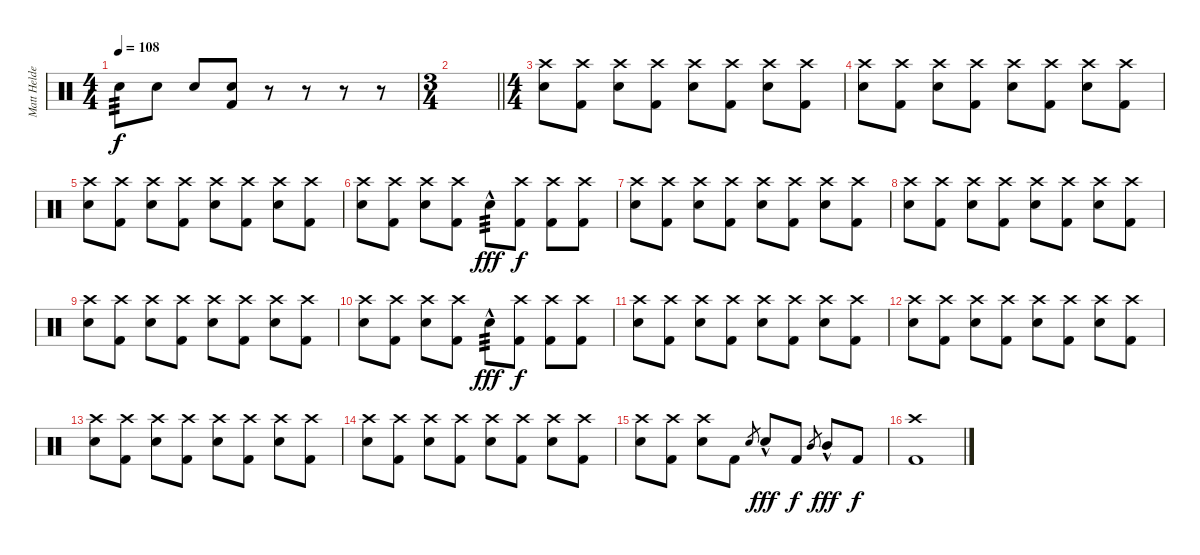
\track ("Matt Helder" "Matt Helde") {instrument percussion}
\staff {score}
\articulation defaults
\ts (4 4)
\tempo 108
\clef neutral
\ks c "Electric Snare (hit)".8{tp 3 dy f} "Electric Snare (hit)".8 "Electric Snare (hit)".8
("Electric Snare (hit)" "Kick (hit) 2").8 r.8 r.8 r.8 r.8 |
\ts (3 4)
\barLineRight lightlight
|
\ts (4 4)
("Crash high (hit)" "Electric Snare (hit)").8 ("Crash high (hit)" "Kick (hit) 2").8 ("Crash high (hit)" "Electric Snare (hit)").8 ("Crash high (hit)" "Kick (hit) 2").8 ("Crash high (hit)" "Electric Snare (hit)").8 ("Crash high (hit)" "Kick (hit) 2").8 ("Crash high (hit)" "Electric Snare (hit)").8 ("Crash high (hit)" "Kick (hit) 2").8 |
("Crash high (hit)" "Electric Snare (hit)").8 ("Crash high (hit)" "Kick (hit) 2").8 ("Crash high (hit)" "Electric Snare (hit)").8 ("Crash high (hit)" "Kick (hit) 2").8 ("Crash high (hit)" "Electric Snare (hit)").8 ("Crash high (hit)" "Kick (hit) 2").8 ("Crash high (hit)" "Electric Snare (hit)").8 ("Crash high (hit)" "Kick (hit) 2").8 |
("Crash high (hit)" "Electric Snare (hit)").8 ("Crash high (hit)" "Kick (hit) 2").8 ("Crash high (hit)" "Electric Snare (hit)").8 ("Crash high (hit)" "Kick (hit) 2").8 ("Crash high (hit)" "Electric Snare (hit)").8 ("Crash high (hit)" "Kick (hit) 2").8 ("Crash high (hit)" "Electric Snare (hit)").8 ("Crash high (hit)" "Kick (hit) 2").8 |
("Crash high (hit)" "Electric Snare (hit)").8 ("Crash high (hit)" "Kick (hit) 2").8 ("Crash high (hit)" "Electric Snare (hit)").8 ("Crash high (hit)" "Kick (hit) 2").8 "Electric Snare (hit)"{hac}.8{tp 3 dy fff} ("Crash high (hit)" "Kick (hit) 2").8{dy f} ("Crash high (hit)" "Kick (hit) 2").8 ("Crash high (hit)" "Kick (hit) 2").8 |
("Crash high (hit)" "Electric Snare (hit)").8 ("Crash high (hit)" "Kick (hit) 2").8 ("Crash high (hit)" "Electric Snare (hit)").8 ("Crash high (hit)" "Kick (hit) 2").8 ("Crash high (hit)" "Electric Snare (hit)").8 ("Crash high (hit)" "Kick (hit) 2").8 ("Crash high (hit)" "Electric Snare (hit)").8 ("Crash high (hit)" "Kick (hit) 2").8 |
("Crash high (hit)" "Electric Snare (hit)").8 ("Crash high (hit)" "Kick (hit) 2").8 ("Crash high (hit)" "Electric Snare (hit)").8 ("Crash high (hit)" "Kick (hit) 2").8 ("Crash high (hit)" "Electric Snare (hit)").8 ("Crash high (hit)" "Kick (hit) 2").8 ("Crash high (hit)" "Electric Snare (hit)").8 ("Crash high (hit)" "Kick (hit) 2").8 |
("Crash high (hit)" "Electric Snare (hit)").8 ("Crash high (hit)" "Kick (hit) 2").8 ("Crash high (hit)" "Electric Snare (hit)").8 ("Crash high (hit)" "Kick (hit) 2").8 ("Crash high (hit)" "Electric Snare (hit)").8 ("Crash high (hit)" "Kick (hit) 2").8 ("Crash high (hit)" "Electric Snare (hit)").8 ("Crash high (hit)" "Kick (hit) 2").8 |
("Crash high (hit)" "Electric Snare (hit)").8 ("Crash high (hit)" "Kick (hit) 2").8 ("Crash high (hit)" "Electric Snare (hit)").8 ("Crash high (hit)" "Kick (hit) 2").8 "Electric Snare (hit)"{hac}.8{tp 3 dy fff} ("Crash high (hit)" "Kick (hit) 2").8{dy f} ("Crash high (hit)" "Kick (hit) 2").8 ("Crash high (hit)" "Kick (hit) 2").8 |
("Crash high (hit)" "Electric Snare (hit)").8 ("Crash high (hit)" "Kick (hit) 2").8 ("Crash high (hit)" "Electric Snare (hit)").8 ("Crash high (hit)" "Kick (hit) 2").8 ("Crash high (hit)" "Electric Snare (hit)").8 ("Crash high (hit)" "Kick (hit) 2").8 ("Crash high (hit)" "Electric Snare (hit)").8 ("Crash high (hit)" "Kick (hit) 2").8 |
("Crash high (hit)" "Electric Snare (hit)").8 ("Crash high (hit)" "Kick (hit) 2").8 ("Crash high (hit)" "Electric Snare (hit)").8 ("Crash high (hit)" "Kick (hit) 2").8 ("Crash high (hit)" "Electric Snare (hit)").8 ("Crash high (hit)" "Kick (hit) 2").8 ("Crash high (hit)" "Electric Snare (hit)").8 ("Crash high (hit)" "Kick (hit) 2").8 |
("Crash high (hit)" "Electric Snare (hit)").8 ("Crash high (hit)" "Kick (hit) 2").8 ("Crash high (hit)" "Electric Snare (hit)").8 ("Crash high (hit)" "Kick (hit) 2").8 ("Crash high (hit)" "Electric Snare (hit)").8 ("Crash high (hit)" "Kick (hit) 2").8 ("Crash high (hit)" "Electric Snare (hit)").8 ("Crash high (hit)" "Kick (hit) 2").8 |
("Crash high (hit)" "Electric Snare (hit)").8 ("Crash high (hit)" "Kick (hit) 2").8 ("Crash high (hit)" "Electric Snare (hit)").8 ("Crash high (hit)" "Kick (hit) 2").8 ("Crash high (hit)" "Electric Snare (hit)").8 ("Crash high (hit)" "Kick (hit) 2").8 ("Crash high (hit)" "Electric Snare (hit)").8 ("Crash high (hit)" "Kick (hit) 2").8 |
("Crash high (hit)" "Electric Snare (hit)").8 ("Crash high (hit)" "Kick (hit) 2").8 ("Crash high (hit)" "Electric Snare (hit)").8 "Kick (hit) 2".8 "Electric Snare (hit)".8{gr} "Electric Snare (hit)"{hac}.8{dy fff} "Kick (hit) 2".8{dy f} "Mid Tom (hit)".8{gr} "Mid Tom (hit)"{hac}.8{dy fff} "Kick (hit) 2".8{dy f} |
("Crash high (hit)" "Kick (hit) 2").1
